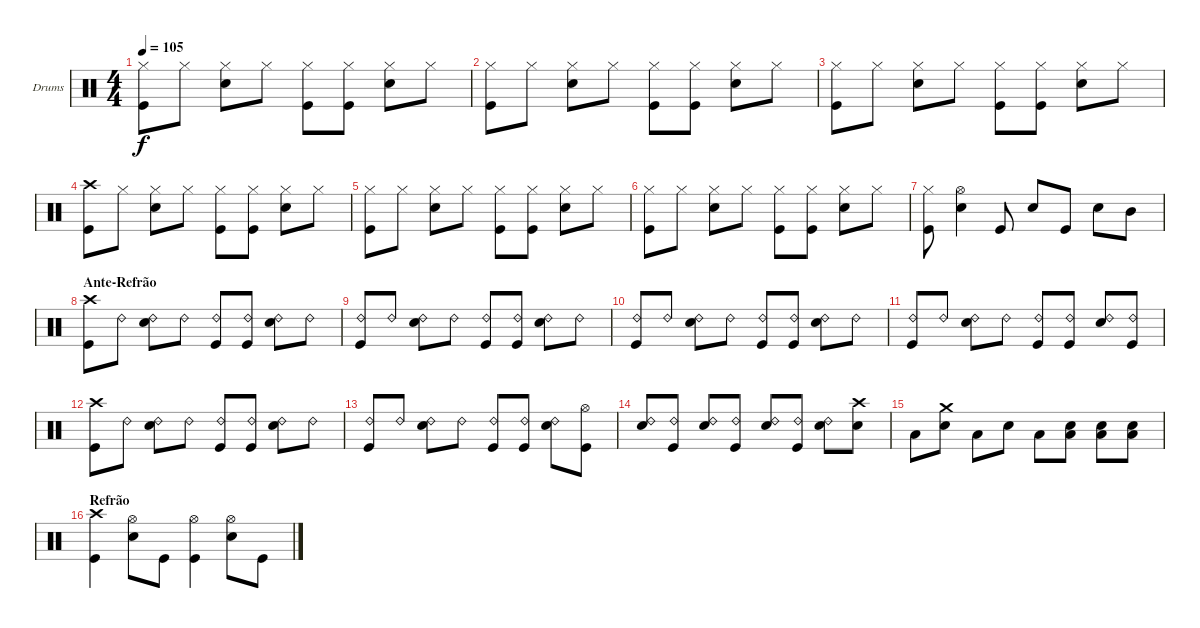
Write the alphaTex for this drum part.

\bracketExtendMode groupsimilarinstruments
\firstSystemTrackNameOrientation horizontal
\otherSystemsTrackNameOrientation horizontal
\track ("Drumkit" "Drums") {instrument percussion}
\staff {score}
\articulation defaults
\ts (4 4)
\tempo 105
\clef neutral
\ks c
("Hi-Hat (closed)" "Kick (hit)").8{dy f} "Hi-Hat (closed)".8 ("Hi-Hat (closed)" "Snare (hit) 2").8 "Hi-Hat (closed)".8 ("Hi-Hat (closed)" "Kick (hit)").8 ("Hi-Hat (closed)" "Kick (hit)").8 ("Hi-Hat (closed)" "Snare (hit) 2").8 "Hi-Hat (closed)".8 |
("Hi-Hat (closed)" "Kick (hit)").8 "Hi-Hat (closed)".8 ("Hi-Hat (closed)" "Snare (hit) 2").8 "Hi-Hat (closed)".8 ("Hi-Hat (closed)" "Kick (hit)").8 ("Hi-Hat (closed)" "Kick (hit)").8 ("Hi-Hat (closed)" "Snare (hit) 2").8 "Hi-Hat (closed)".8 |
("Hi-Hat (closed)" "Kick (hit)").8 "Hi-Hat (closed)".8 ("Hi-Hat (closed)" "Snare (hit) 2").8 "Hi-Hat (closed)".8 ("Hi-Hat (closed)" "Kick (hit)").8 ("Hi-Hat (closed)" "Kick (hit)").8 ("Hi-Hat (closed)" "Snare (hit) 2").8 "Hi-Hat (closed)".8 |
("Crash high (hit)" "Kick (hit)").8 "Hi-Hat (closed)".8 ("Hi-Hat (closed)" "Snare (hit) 2").8 "Hi-Hat (closed)".8 ("Hi-Hat (closed)" "Kick (hit)").8 ("Hi-Hat (closed)" "Kick (hit)").8 ("Hi-Hat (closed)" "Snare (hit) 2").8 "Hi-Hat (closed)".8 |
("Hi-Hat (closed)" "Kick (hit)").8 "Hi-Hat (closed)".8 ("Hi-Hat (closed)" "Snare (hit) 2").8 "Hi-Hat (closed)".8 ("Hi-Hat (closed)" "Kick (hit)").8 ("Hi-Hat (closed)" "Kick (hit)").8 ("Hi-Hat (closed)" "Snare (hit) 2").8 "Hi-Hat (closed)".8 |
("Hi-Hat (closed)" "Kick (hit)").8 "Hi-Hat (closed)".8 ("Hi-Hat (closed)" "Snare (hit) 2").8 "Hi-Hat (closed)".8 ("Hi-Hat (closed)" "Kick (hit)").8 ("Hi-Hat (closed)" "Kick (hit)").8 ("Hi-Hat (closed)" "Snare (hit) 2").8 "Hi-Hat (closed)".8 |
("Hi-Hat (closed)" "Kick (hit)").8 ("Hi-Hat (open)" "Snare (hit) 2").4 "Kick (hit)".8 "Snare (hit) 2".8 "Kick (hit)".8 "Snare (hit) 2".8 "Mid Tom (hit)".8 |
\section ("" "Ante-Refrão")
("Crash high (hit)" "Kick (hit)").8 "Ride (bell) 2".8 ("Ride (bell) 2" "Snare (hit) 2").8 "Ride (bell) 2".8 ("Ride (bell) 2" "Kick (hit)").8 ("Ride (bell) 2" "Kick (hit)").8 ("Ride (bell) 2" "Snare (hit) 2").8 "Ride (bell) 2".8 |
("Ride (bell) 2" "Kick (hit)").8 "Ride (bell) 2".8 ("Ride (bell) 2" "Snare (hit) 2").8 "Ride (bell) 2".8 ("Ride (bell) 2" "Kick (hit)").8 ("Ride (bell) 2" "Kick (hit)").8 ("Ride (bell) 2" "Snare (hit) 2").8 "Ride (bell) 2".8 |
("Ride (bell) 2" "Kick (hit)").8 "Ride (bell) 2".8 ("Ride (bell) 2" "Snare (hit) 2").8 "Ride (bell) 2".8 ("Ride (bell) 2" "Kick (hit)").8 ("Ride (bell) 2" "Kick (hit)").8 ("Ride (bell) 2" "Snare (hit) 2").8 "Ride (bell) 2".8 |
("Ride (bell) 2" "Kick (hit)").8 "Ride (bell) 2".8 ("Ride (bell) 2" "Snare (hit) 2").8 "Ride (bell) 2".8 ("Ride (bell) 2" "Kick (hit)").8 ("Ride (bell) 2" "Kick (hit)").8 ("Ride (bell) 2" "Snare (hit) 2").8 ("Ride (bell) 2" "Kick (hit)").8 |
("Crash high (hit)" "Kick (hit)").8 "Ride (bell) 2".8 ("Ride (bell) 2" "Snare (hit) 2").8 "Ride (bell) 2".8 ("Ride (bell) 2" "Kick (hit)").8 ("Ride (bell) 2" "Kick (hit)").8 ("Ride (bell) 2" "Snare (hit) 2").8 "Ride (bell) 2".8 |
("Ride (bell) 2" "Kick (hit)").8 "Ride (bell) 2".8 ("Ride (bell) 2" "Snare (hit) 2").8 "Ride (bell) 2".8 ("Ride (bell) 2" "Kick (hit)").8 ("Ride (bell) 2" "Kick (hit)").8 ("Ride (bell) 2" "Snare (hit) 2").8 ("Hi-Hat (open)" "Kick (hit)").8 |
("Ride (bell) 2" "Snare (hit) 2").8 ("Ride (bell) 2" "Kick (hit)").8 ("Ride (bell) 2" "Snare (hit) 2").8 ("Ride (bell) 2" "Kick (hit)").8 ("Ride (bell) 2" "Snare (hit) 2").8 ("Ride (bell) 2" "Kick (hit)").8 ("Ride (bell) 2" "Snare (hit) 2").8 ("Crash high (hit)" "Snare (hit) 2").8 |
"Low Tom (hit)".8 ("Crash medium (hit)" "Snare (hit) 2").8 "Low Tom (hit)".8 "Snare (hit) 2".8 "Low Tom (hit)".8 ("Low Tom (hit)" "Snare (hit) 2").8 ("Low Tom (hit)" "Snare (hit) 2").8 ("Low Tom (hit)" "Snare (hit) 2").8 |
\section ("" "Refrão")
("Crash high (hit)" "Kick (hit)").4 ("Hi-Hat (open)" "Snare (hit) 2").8 "Kick (hit)".8 ("Hi-Hat (open)" "Kick (hit)").4 ("Hi-Hat (open)" "Snare (hit) 2").8 "Kick (hit)".8
